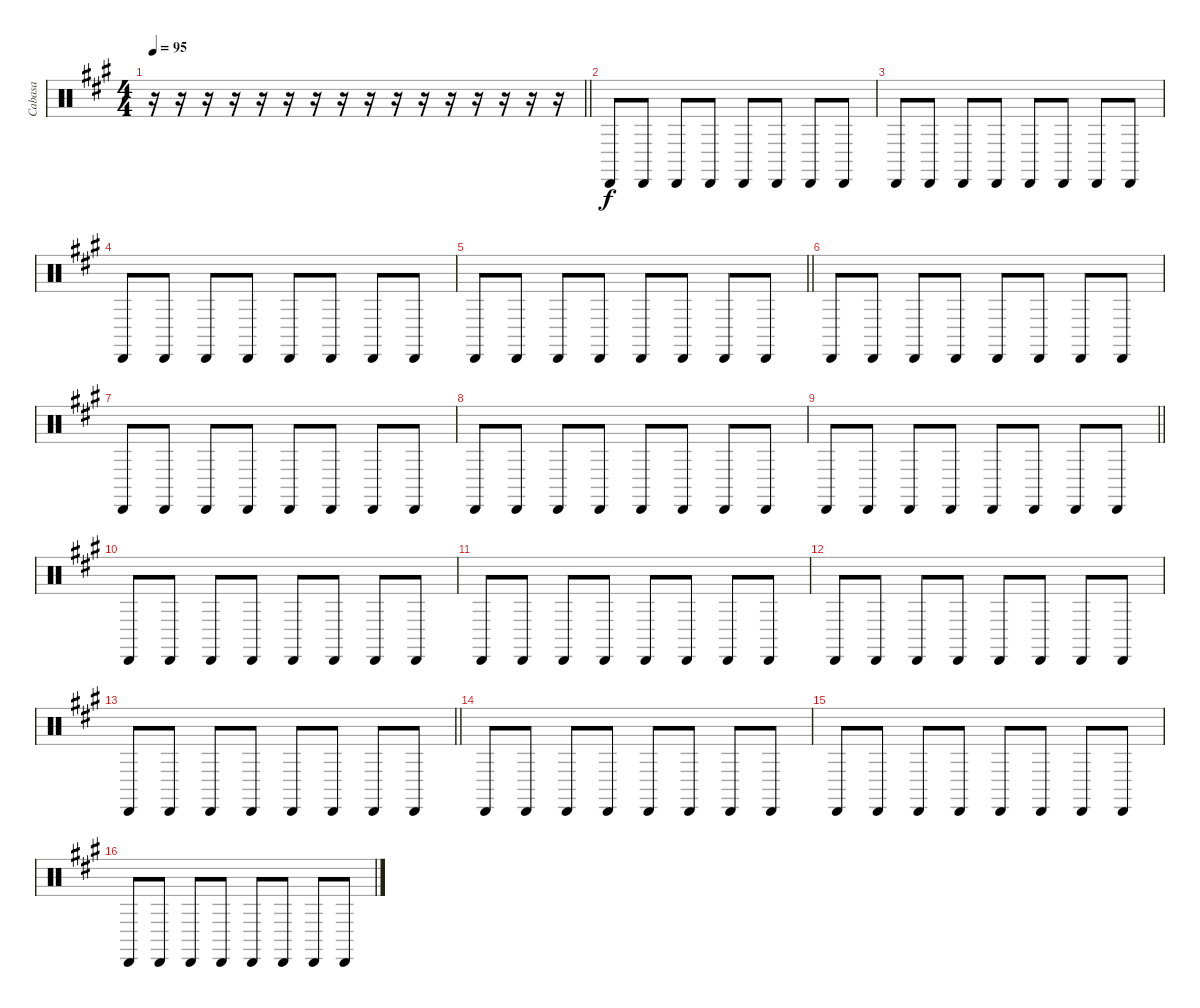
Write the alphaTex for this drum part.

\track ("Cabasa" "Cabasa") {instrument percussion}
\staff {score}
\articulation defaults
\ts (4 4)
\tempo 95
\clef neutral
\barLineRight lightlight
\ks a
r.16{dy f} r.16 r.16 r.16 r.16 r.16 r.16 r.16 r.16 r.16 r.16 r.16 r.16 r.16 r.16 r.16 |
"Cabasa (hit)".8 "Cabasa (hit)".8 "Cabasa (hit)".8 "Cabasa (hit)".8 "Cabasa (hit)".8 "Cabasa (hit)".8 "Cabasa (hit)".8 "Cabasa (hit)".8 |
"Cabasa (hit)".8 "Cabasa (hit)".8 "Cabasa (hit)".8 "Cabasa (hit)".8 "Cabasa (hit)".8 "Cabasa (hit)".8 "Cabasa (hit)".8 "Cabasa (hit)".8 |
"Cabasa (hit)".8 "Cabasa (hit)".8 "Cabasa (hit)".8 "Cabasa (hit)".8 "Cabasa (hit)".8 "Cabasa (hit)".8 "Cabasa (hit)".8 "Cabasa (hit)".8 |
\barLineRight lightlight "Cabasa (hit)".8 "Cabasa (hit)".8 "Cabasa (hit)".8 "Cabasa (hit)".8 "Cabasa (hit)".8 "Cabasa (hit)".8 "Cabasa (hit)".8 "Cabasa (hit)".8
|
"Cabasa (hit)".8 "Cabasa (hit)".8 "Cabasa (hit)".8 "Cabasa (hit)".8 "Cabasa (hit)".8 "Cabasa (hit)".8 "Cabasa (hit)".8 "Cabasa (hit)".8 |
"Cabasa (hit)".8 "Cabasa (hit)".8 "Cabasa (hit)".8 "Cabasa (hit)".8 "Cabasa (hit)".8 "Cabasa (hit)".8 "Cabasa (hit)".8 "Cabasa (hit)".8 |
"Cabasa (hit)".8 "Cabasa (hit)".8 "Cabasa (hit)".8 "Cabasa (hit)".8 "Cabasa (hit)".8 "Cabasa (hit)".8 "Cabasa (hit)".8 "Cabasa (hit)".8 |
\barLineRight lightlight "Cabasa (hit)".8 "Cabasa (hit)".8 "Cabasa (hit)".8 "Cabasa (hit)".8 "Cabasa (hit)".8 "Cabasa (hit)".8 "Cabasa (hit)".8 "Cabasa (hit)".8
|
"Cabasa (hit)".8 "Cabasa (hit)".8 "Cabasa (hit)".8 "Cabasa (hit)".8 "Cabasa (hit)".8 "Cabasa (hit)".8 "Cabasa (hit)".8 "Cabasa (hit)".8 |
"Cabasa (hit)".8 "Cabasa (hit)".8 "Cabasa (hit)".8 "Cabasa (hit)".8 "Cabasa (hit)".8 "Cabasa (hit)".8 "Cabasa (hit)".8 "Cabasa (hit)".8 |
"Cabasa (hit)".8 "Cabasa (hit)".8 "Cabasa (hit)".8 "Cabasa (hit)".8 "Cabasa (hit)".8 "Cabasa (hit)".8 "Cabasa (hit)".8 "Cabasa (hit)".8 |
\barLineRight lightlight "Cabasa (hit)".8 "Cabasa (hit)".8 "Cabasa (hit)".8 "Cabasa (hit)".8 "Cabasa (hit)".8 "Cabasa (hit)".8 "Cabasa (hit)".8 "Cabasa (hit)".8
|
"Cabasa (hit)".8 "Cabasa (hit)".8 "Cabasa (hit)".8 "Cabasa (hit)".8 "Cabasa (hit)".8 "Cabasa (hit)".8 "Cabasa (hit)".8 "Cabasa (hit)".8 |
"Cabasa (hit)".8 "Cabasa (hit)".8 "Cabasa (hit)".8 "Cabasa (hit)".8 "Cabasa (hit)".8 "Cabasa (hit)".8 "Cabasa (hit)".8 "Cabasa (hit)".8 |
"Cabasa (hit)".8 "Cabasa (hit)".8 "Cabasa (hit)".8 "Cabasa (hit)".8 "Cabasa (hit)".8 "Cabasa (hit)".8 "Cabasa (hit)".8 "Cabasa (hit)".8
